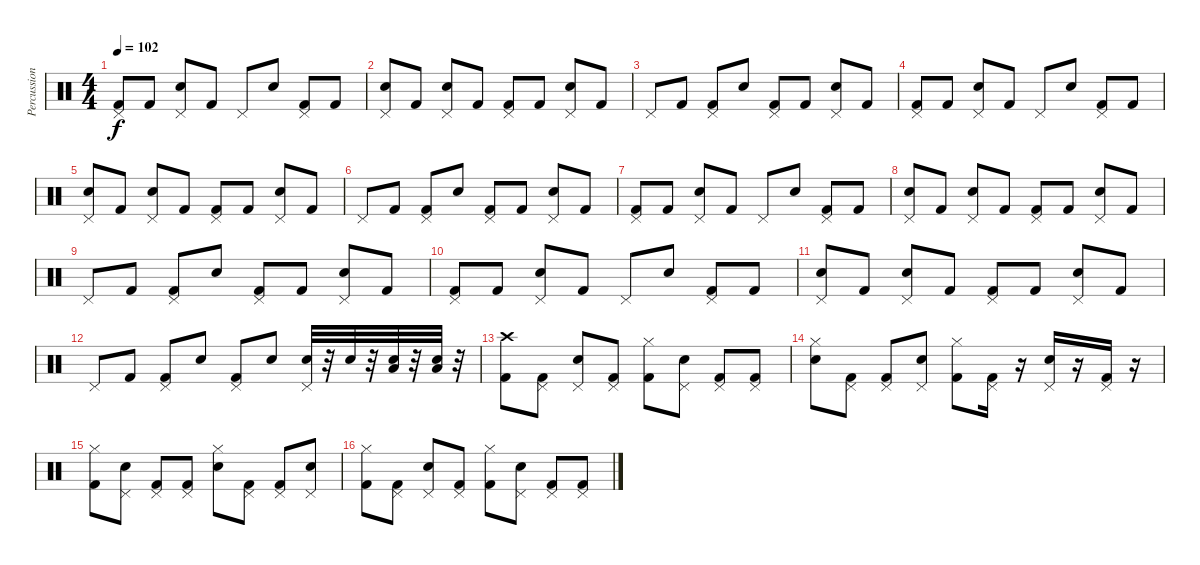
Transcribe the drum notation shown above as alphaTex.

\track ("Percussion" "Percussion") {instrument percussion}
\staff {score}
\articulation defaults
\ts (4 4)
\tempo 102
\clef neutral
\ks c
("Pedal Hi-Hat (hit)" "Kick (hit) 2").8{dy f} "Kick (hit) 2".8 ("Pedal Hi-Hat (hit)" "Electric Snare (hit)").8 "Kick (hit) 2".8 "Pedal Hi-Hat (hit)".8 "Electric Snare (hit)".8 ("Pedal Hi-Hat (hit)" "Kick (hit) 2").8 "Kick (hit) 2".8 |
("Pedal Hi-Hat (hit)" "Electric Snare (hit)").8 "Kick (hit) 2".8 ("Pedal Hi-Hat (hit)" "Electric Snare (hit)").8 "Kick (hit) 2".8 ("Pedal Hi-Hat (hit)" "Kick (hit) 2").8 "Kick (hit) 2".8 ("Pedal Hi-Hat (hit)" "Electric Snare (hit)").8 "Kick (hit) 2".8 |
"Pedal Hi-Hat (hit)".8 "Kick (hit) 2".8 ("Pedal Hi-Hat (hit)" "Kick (hit) 2").8 "Electric Snare (hit)".8 ("Pedal Hi-Hat (hit)" "Kick (hit) 2").8 "Kick (hit) 2".8 ("Pedal Hi-Hat (hit)" "Electric Snare (hit)").8 "Kick (hit) 2".8 |
("Pedal Hi-Hat (hit)" "Kick (hit) 2").8 "Kick (hit) 2".8 ("Pedal Hi-Hat (hit)" "Electric Snare (hit)").8 "Kick (hit) 2".8 "Pedal Hi-Hat (hit)".8 "Electric Snare (hit)".8 ("Pedal Hi-Hat (hit)" "Kick (hit) 2").8 "Kick (hit) 2".8 |
("Pedal Hi-Hat (hit)" "Electric Snare (hit)").8 "Kick (hit) 2".8 ("Pedal Hi-Hat (hit)" "Electric Snare (hit)").8 "Kick (hit) 2".8 ("Pedal Hi-Hat (hit)" "Kick (hit) 2").8 "Kick (hit) 2".8 ("Pedal Hi-Hat (hit)" "Electric Snare (hit)").8 "Kick (hit) 2".8 |
"Pedal Hi-Hat (hit)".8 "Kick (hit) 2".8 ("Pedal Hi-Hat (hit)" "Kick (hit) 2").8 "Electric Snare (hit)".8 ("Pedal Hi-Hat (hit)" "Kick (hit) 2").8 "Kick (hit) 2".8 ("Pedal Hi-Hat (hit)" "Electric Snare (hit)").8 "Kick (hit) 2".8 |
("Pedal Hi-Hat (hit)" "Kick (hit) 2").8 "Kick (hit) 2".8 ("Pedal Hi-Hat (hit)" "Electric Snare (hit)").8 "Kick (hit) 2".8 "Pedal Hi-Hat (hit)".8 "Electric Snare (hit)".8 ("Pedal Hi-Hat (hit)" "Kick (hit) 2").8 "Kick (hit) 2".8 |
("Pedal Hi-Hat (hit)" "Electric Snare (hit)").8 "Kick (hit) 2".8 ("Pedal Hi-Hat (hit)" "Electric Snare (hit)").8 "Kick (hit) 2".8 ("Pedal Hi-Hat (hit)" "Kick (hit) 2").8 "Kick (hit) 2".8 ("Pedal Hi-Hat (hit)" "Electric Snare (hit)").8 "Kick (hit) 2".8 |
"Pedal Hi-Hat (hit)".8 "Kick (hit) 2".8 ("Pedal Hi-Hat (hit)" "Kick (hit) 2").8 "Electric Snare (hit)".8 ("Pedal Hi-Hat (hit)" "Kick (hit) 2").8 "Kick (hit) 2".8 ("Pedal Hi-Hat (hit)" "Electric Snare (hit)").8 "Kick (hit) 2".8 |
("Pedal Hi-Hat (hit)" "Kick (hit) 2").8 "Kick (hit) 2".8 ("Pedal Hi-Hat (hit)" "Electric Snare (hit)").8 "Kick (hit) 2".8 "Pedal Hi-Hat (hit)".8 "Electric Snare (hit)".8 ("Pedal Hi-Hat (hit)" "Kick (hit) 2").8 "Kick (hit) 2".8 |
("Pedal Hi-Hat (hit)" "Electric Snare (hit)").8 "Kick (hit) 2".8 ("Pedal Hi-Hat (hit)" "Electric Snare (hit)").8 "Kick (hit) 2".8 ("Pedal Hi-Hat (hit)" "Kick (hit) 2").8 "Kick (hit) 2".8 ("Pedal Hi-Hat (hit)" "Electric Snare (hit)").8 "Kick (hit) 2".8 |
"Pedal Hi-Hat (hit)".8 "Kick (hit) 2".8 ("Pedal Hi-Hat (hit)" "Kick (hit) 2").8 "Electric Snare (hit)".8 ("Pedal Hi-Hat (hit)" "Kick (hit) 2").8 "Electric Snare (hit)".8 ("Pedal Hi-Hat (hit)" "Electric Snare (hit)").32 r.32 "Electric Snare (hit)".32 r.32 ("Electric Snare (hit)" "Low Tom (hit)").32 r.32 ("Electric Snare (hit)" "Low Tom (hit)").32 r.32 |
("Crash high (hit)" "Kick (hit) 2").8 ("Pedal Hi-Hat (hit)" "Kick (hit) 2").8 ("Pedal Hi-Hat (hit)" "Electric Snare (hit)").8 ("Pedal Hi-Hat (hit)" "Kick (hit) 2").8 ("Hi-Hat (closed)" "Kick (hit) 2").8 ("Pedal Hi-Hat (hit)" "Electric Snare (hit)").8 ("Pedal Hi-Hat (hit)" "Kick (hit) 2").8 ("Pedal Hi-Hat (hit)" "Kick (hit) 2").8 |
("Hi-Hat (closed)" "Electric Snare (hit)").8 ("Pedal Hi-Hat (hit)" "Kick (hit) 2").8 ("Pedal Hi-Hat (hit)" "Kick (hit) 2").8 ("Pedal Hi-Hat (hit)" "Electric Snare (hit)").8 ("Hi-Hat (closed)" "Kick (hit) 2").8 ("Pedal Hi-Hat (hit)" "Kick (hit) 2").16 r.16 ("Pedal Hi-Hat (hit)" "Electric Snare (hit)").16 r.16 ("Pedal Hi-Hat (hit)" "Kick (hit) 2").16 r.16 |
("Hi-Hat (closed)" "Kick (hit) 2").8 ("Pedal Hi-Hat (hit)" "Electric Snare (hit)").8 ("Pedal Hi-Hat (hit)" "Kick (hit) 2").8 ("Pedal Hi-Hat (hit)" "Kick (hit) 2").8 ("Hi-Hat (closed)" "Electric Snare (hit)").8 ("Pedal Hi-Hat (hit)" "Kick (hit) 2").8 ("Pedal Hi-Hat (hit)" "Kick (hit) 2").8 ("Pedal Hi-Hat (hit)" "Electric Snare (hit)").8 |
("Hi-Hat (closed)" "Kick (hit) 2").8 ("Pedal Hi-Hat (hit)" "Kick (hit) 2").8 ("Pedal Hi-Hat (hit)" "Electric Snare (hit)").8 ("Pedal Hi-Hat (hit)" "Kick (hit) 2").8 ("Hi-Hat (closed)" "Kick (hit) 2").8 ("Pedal Hi-Hat (hit)" "Electric Snare (hit)").8 ("Pedal Hi-Hat (hit)" "Kick (hit) 2").8 ("Pedal Hi-Hat (hit)" "Kick (hit) 2").8
